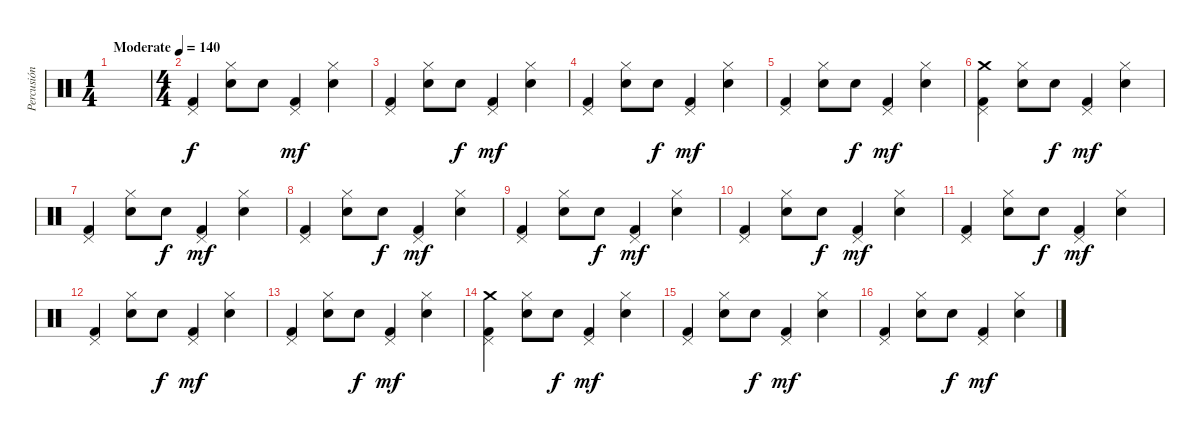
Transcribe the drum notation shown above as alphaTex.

\track ("Percusión" "Percusión") {instrument percussion}
\staff {score}
\articulation defaults
\ts (1 4)
\tempo (140 "Moderate")
\clef neutral
\ks c
|
\ts (4 4)
("Pedal Hi-Hat (hit)" "Kick (hit) 2").4 ("Hi-Hat (closed)" "Electric Snare (hit)").8 "Electric Snare (hit)".8{dy f} ("Pedal Hi-Hat (hit)" "Kick (hit) 2").4{dy mf} ("Hi-Hat (closed)" "Electric Snare (hit)").4 |
("Pedal Hi-Hat (hit)" "Kick (hit) 2").4 ("Hi-Hat (closed)" "Electric Snare (hit)").8 "Electric Snare (hit)".8{dy f} ("Pedal Hi-Hat (hit)" "Kick (hit) 2").4{dy mf} ("Hi-Hat (closed)" "Electric Snare (hit)").4 |
("Pedal Hi-Hat (hit)" "Kick (hit) 2").4 ("Hi-Hat (closed)" "Electric Snare (hit)").8 "Electric Snare (hit)".8{dy f} ("Pedal Hi-Hat (hit)" "Kick (hit) 2").4{dy mf} ("Hi-Hat (closed)" "Electric Snare (hit)").4 |
("Pedal Hi-Hat (hit)" "Kick (hit) 2").4 ("Hi-Hat (closed)" "Electric Snare (hit)").8 "Electric Snare (hit)".8{dy f} ("Pedal Hi-Hat (hit)" "Kick (hit) 2").4{dy mf} ("Hi-Hat (closed)" "Electric Snare (hit)").4 |
("Pedal Hi-Hat (hit)" "Crash medium (hit)" "Kick (hit) 2").4 ("Hi-Hat (closed)" "Electric Snare (hit)").8 "Electric Snare (hit)".8{dy f} ("Pedal Hi-Hat (hit)" "Kick (hit) 2").4{dy mf} ("Hi-Hat (closed)" "Electric Snare (hit)").4 |
("Pedal Hi-Hat (hit)" "Kick (hit) 2").4 ("Hi-Hat (closed)" "Electric Snare (hit)").8 "Electric Snare (hit)".8{dy f} ("Pedal Hi-Hat (hit)" "Kick (hit) 2").4{dy mf} ("Hi-Hat (closed)" "Electric Snare (hit)").4 |
("Pedal Hi-Hat (hit)" "Kick (hit) 2").4 ("Hi-Hat (closed)" "Electric Snare (hit)").8 "Electric Snare (hit)".8{dy f} ("Pedal Hi-Hat (hit)" "Kick (hit) 2").4{dy mf} ("Hi-Hat (closed)" "Electric Snare (hit)").4 |
("Pedal Hi-Hat (hit)" "Kick (hit) 2").4 ("Hi-Hat (closed)" "Electric Snare (hit)").8 "Electric Snare (hit)".8{dy f} ("Pedal Hi-Hat (hit)" "Kick (hit) 2").4{dy mf} ("Hi-Hat (closed)" "Electric Snare (hit)").4 |
("Pedal Hi-Hat (hit)" "Kick (hit) 2").4 ("Hi-Hat (closed)" "Electric Snare (hit)").8 "Electric Snare (hit)".8{dy f} ("Pedal Hi-Hat (hit)" "Kick (hit) 2").4{dy mf} ("Hi-Hat (closed)" "Electric Snare (hit)").4 |
("Pedal Hi-Hat (hit)" "Kick (hit) 2").4 ("Hi-Hat (closed)" "Electric Snare (hit)").8 "Electric Snare (hit)".8{dy f} ("Pedal Hi-Hat (hit)" "Kick (hit) 2").4{dy mf} ("Hi-Hat (closed)" "Electric Snare (hit)").4 |
("Pedal Hi-Hat (hit)" "Kick (hit) 2").4 ("Hi-Hat (closed)" "Electric Snare (hit)").8 "Electric Snare (hit)".8{dy f} ("Pedal Hi-Hat (hit)" "Kick (hit) 2").4{dy mf} ("Hi-Hat (closed)" "Electric Snare (hit)").4 |
("Pedal Hi-Hat (hit)" "Kick (hit) 2").4 ("Hi-Hat (closed)" "Electric Snare (hit)").8 "Electric Snare (hit)".8{dy f} ("Pedal Hi-Hat (hit)" "Kick (hit) 2").4{dy mf} ("Hi-Hat (closed)" "Electric Snare (hit)").4 |
("Pedal Hi-Hat (hit)" "Crash medium (hit)" "Kick (hit) 2").4 ("Hi-Hat (closed)" "Electric Snare (hit)").8 "Electric Snare (hit)".8{dy f} ("Pedal Hi-Hat (hit)" "Kick (hit) 2").4{dy mf} ("Hi-Hat (closed)" "Electric Snare (hit)").4 |
("Pedal Hi-Hat (hit)" "Kick (hit) 2").4 ("Hi-Hat (closed)" "Electric Snare (hit)").8 "Electric Snare (hit)".8{dy f} ("Pedal Hi-Hat (hit)" "Kick (hit) 2").4{dy mf} ("Hi-Hat (closed)" "Electric Snare (hit)").4 |
("Pedal Hi-Hat (hit)" "Kick (hit) 2").4 ("Hi-Hat (closed)" "Electric Snare (hit)").8 "Electric Snare (hit)".8{dy f} ("Pedal Hi-Hat (hit)" "Kick (hit) 2").4{dy mf} ("Hi-Hat (closed)" "Electric Snare (hit)").4
